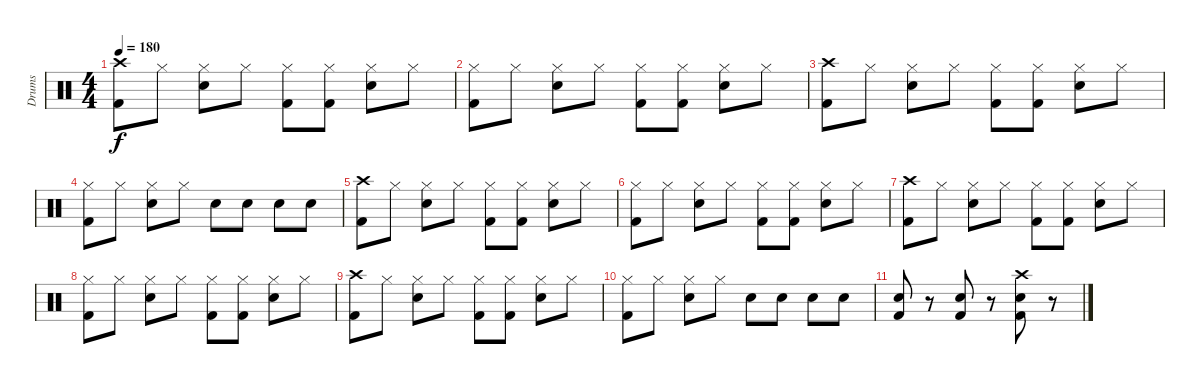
\track ("Drums" "Drums") {instrument percussion}
\staff {score}
\articulation defaults
\ts (4 4)
\tempo 180
\clef neutral
\ks c
("Crash high (hit)" "Kick (hit) 2").8{dy f} "Hi-Hat (closed)".8 ("Hi-Hat (closed)" "Snare (hit) 2").8 "Hi-Hat (closed)".8 ("Hi-Hat (closed)" "Kick (hit) 2").8 ("Hi-Hat (closed)" "Kick (hit) 2").8 ("Hi-Hat (closed)" "Snare (hit) 2").8 "Hi-Hat (closed)".8 |
("Hi-Hat (closed)" "Kick (hit) 2").8 "Hi-Hat (closed)".8 ("Hi-Hat (closed)" "Snare (hit) 2").8 "Hi-Hat (closed)".8 ("Hi-Hat (closed)" "Kick (hit) 2").8 ("Hi-Hat (closed)" "Kick (hit) 2").8 ("Hi-Hat (closed)" "Snare (hit) 2").8 "Hi-Hat (closed)".8 |
("Crash high (hit)" "Kick (hit) 2").8 "Hi-Hat (closed)".8 ("Hi-Hat (closed)" "Snare (hit) 2").8 "Hi-Hat (closed)".8 ("Hi-Hat (closed)" "Kick (hit) 2").8 ("Hi-Hat (closed)" "Kick (hit) 2").8 ("Hi-Hat (closed)" "Snare (hit) 2").8 "Hi-Hat (closed)".8 |
("Hi-Hat (closed)" "Kick (hit) 2").8 "Hi-Hat (closed)".8 ("Hi-Hat (closed)" "Snare (hit) 2").8 "Hi-Hat (closed)".8 "Snare (hit) 2".8 "Snare (hit) 2".8 "Snare (hit) 2".8 "Snare (hit) 2".8 |
("Crash high (hit)" "Kick (hit) 2").8 "Hi-Hat (closed)".8 ("Hi-Hat (closed)" "Snare (hit) 2").8 "Hi-Hat (closed)".8 ("Hi-Hat (closed)" "Kick (hit) 2").8 ("Hi-Hat (closed)" "Kick (hit) 2").8 ("Hi-Hat (closed)" "Snare (hit) 2").8 "Hi-Hat (closed)".8 |
("Hi-Hat (closed)" "Kick (hit) 2").8 "Hi-Hat (closed)".8 ("Hi-Hat (closed)" "Snare (hit) 2").8 "Hi-Hat (closed)".8 ("Hi-Hat (closed)" "Kick (hit) 2").8 ("Hi-Hat (closed)" "Kick (hit) 2").8 ("Hi-Hat (closed)" "Snare (hit) 2").8 "Hi-Hat (closed)".8 |
("Crash high (hit)" "Kick (hit) 2").8 "Hi-Hat (closed)".8 ("Hi-Hat (closed)" "Snare (hit) 2").8 "Hi-Hat (closed)".8 ("Hi-Hat (closed)" "Kick (hit) 2").8 ("Hi-Hat (closed)" "Kick (hit) 2").8 ("Hi-Hat (closed)" "Snare (hit) 2").8 "Hi-Hat (closed)".8 |
("Hi-Hat (closed)" "Kick (hit) 2").8 "Hi-Hat (closed)".8 ("Hi-Hat (closed)" "Snare (hit) 2").8 "Hi-Hat (closed)".8 ("Hi-Hat (closed)" "Kick (hit) 2").8 ("Hi-Hat (closed)" "Kick (hit) 2").8 ("Hi-Hat (closed)" "Snare (hit) 2").8 "Hi-Hat (closed)".8 |
("Crash high (hit)" "Kick (hit) 2").8 "Hi-Hat (closed)".8 ("Hi-Hat (closed)" "Snare (hit) 2").8 "Hi-Hat (closed)".8 ("Hi-Hat (closed)" "Kick (hit) 2").8 ("Hi-Hat (closed)" "Kick (hit) 2").8 ("Hi-Hat (closed)" "Snare (hit) 2").8 "Hi-Hat (closed)".8 |
("Hi-Hat (closed)" "Kick (hit) 2").8 "Hi-Hat (closed)".8 ("Hi-Hat (closed)" "Snare (hit) 2").8 "Hi-Hat (closed)".8 "Snare (hit) 2".8 "Snare (hit) 2".8 "Snare (hit) 2".8 "Snare (hit) 2".8 |
("Snare (hit) 2" "Kick (hit) 2").8 r.8 ("Snare (hit) 2" "Kick (hit) 2").8 r.8 ("Crash high (hit)" "Snare (hit) 2" "Kick (hit) 2").8 r.8
